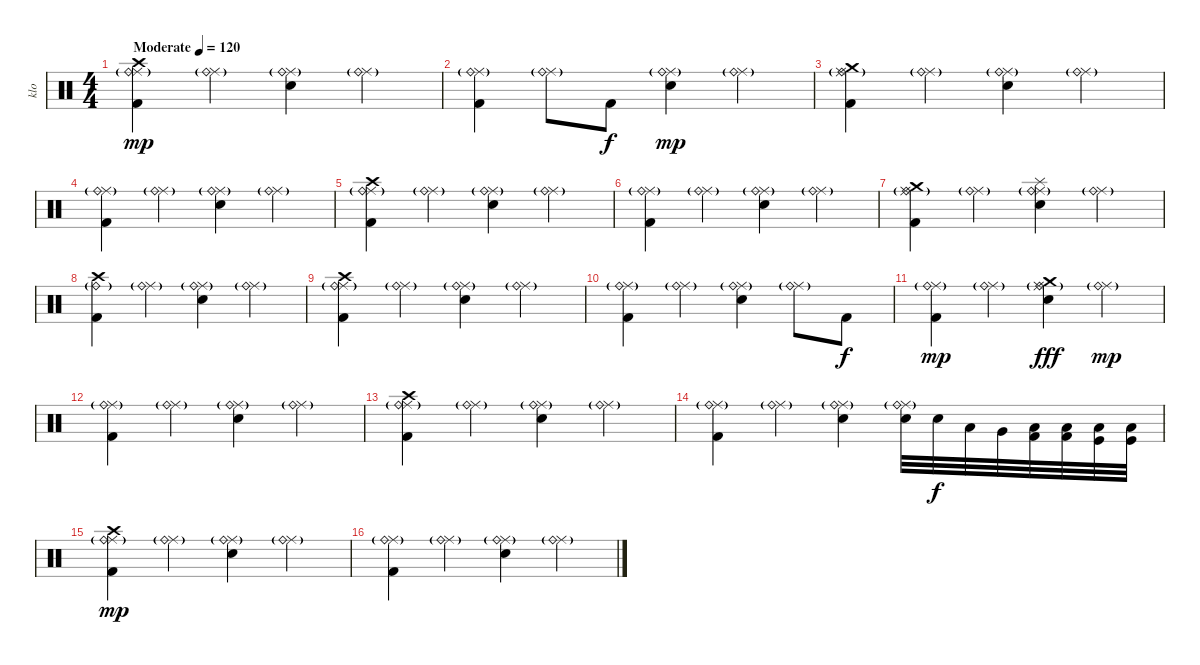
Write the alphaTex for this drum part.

\track ("klo" "klo") {instrument percussion}
\staff
\articulation defaults
\ts (4 4)
\tempo (120 "Moderate")
\clef neutral
\ks c
("Ride (middle)" "Ride (bell)"{g} "Kick (hit) 2" "Crash high (hit)").4{dy mp} ("Ride (middle)" "Ride (bell)"{g}).4 ("Ride (middle)" "Ride (bell)"{g} "Snare (hit) 2").4 ("Ride (middle)" "Ride (bell)"{g}).4 |
("Ride (middle)" "Ride (bell)"{g} "Kick (hit) 2").4 ("Ride (middle)" "Ride (bell)"{g}).8 "Kick (hit) 2".8{dy f} ("Ride (middle)" "Ride (bell)"{g} "Snare (hit) 2").4{dy mp} ("Ride (middle)" "Ride (bell)"{g}).4 |
("Ride (middle)" "Ride (bell)"{g} "Kick (hit) 2" "Crash medium (hit)").4 ("Ride (middle)" "Ride (bell)"{g}).4 ("Ride (middle)" "Ride (bell)"{g} "Snare (hit) 2").4 ("Ride (middle)" "Ride (bell)"{g}).4 |
("Ride (middle)" "Ride (bell)"{g} "Kick (hit) 2").4 ("Ride (middle)" "Ride (bell)"{g}).4 ("Ride (middle)" "Ride (bell)"{g} "Snare (hit) 2").4 ("Ride (middle)" "Ride (bell)"{g}).4 |
("Ride (middle)" "Ride (bell)"{g} "Kick (hit) 2" "Crash high (hit)").4 ("Ride (middle)" "Ride (bell)"{g}).4 ("Ride (middle)" "Ride (bell)"{g} "Snare (hit) 2").4 ("Ride (middle)" "Ride (bell)"{g}).4 |
("Ride (middle)" "Ride (bell)"{g} "Kick (hit) 2").4 ("Ride (middle)" "Ride (bell)"{g}).4 ("Ride (middle)" "Ride (bell)"{g} "Snare (hit) 2").4 ("Ride (middle)" "Ride (bell)"{g}).4 |
("Ride (middle)" "Ride (bell)"{g} "Kick (hit) 2" "Crash medium (hit)").4 ("Ride (middle)" "Ride (bell)"{g}).4 ("Ride (middle)" "Ride (bell)"{g} "Snare (hit) 2" "Splash (hit)").4 ("Ride (middle)" "Ride (bell)"{g}).4 |
("Crash high (hit)" "Ride (bell)"{g} "Kick (hit) 2").4 ("Ride (middle)" "Ride (bell)"{g}).4 ("Ride (middle)" "Ride (bell)"{g} "Snare (hit) 2").4 ("Ride (middle)" "Ride (bell)"{g}).4 |
("Ride (middle)" "Ride (bell)"{g} "Kick (hit) 2" "Crash high (hit)").4 ("Ride (middle)" "Ride (bell)"{g}).4 ("Ride (middle)" "Ride (bell)"{g} "Snare (hit) 2").4 ("Ride (middle)" "Ride (bell)"{g}).4 |
("Ride (middle)" "Ride (bell)"{g} "Kick (hit) 2").4 ("Ride (middle)" "Ride (bell)"{g}).4 ("Ride (middle)" "Ride (bell)"{g} "Snare (hit) 2").4 ("Ride (middle)" "Ride (bell)"{g}).8 "Kick (hit) 2".8{dy f} |
("Ride (middle)" "Ride (bell)"{g} "Kick (hit) 2").4{dy mp} ("Ride (middle)" "Ride (bell)"{g}).4 ("Ride (middle)" "Ride (bell)"{g} "Snare (hit) 2" "Crash medium (hit)").4{dy fff} ("Ride (middle)" "Ride (bell)"{g}).4{dy mp} |
("Ride (middle)" "Ride (bell)"{g} "Kick (hit) 2").4 ("Ride (middle)" "Ride (bell)"{g}).4 ("Ride (middle)" "Ride (bell)"{g} "Snare (hit) 2").4 ("Ride (middle)" "Ride (bell)"{g}).4 |
("Ride (middle)" "Ride (bell)"{g} "Kick (hit) 2" "Crash high (hit)").4 ("Ride (middle)" "Ride (bell)"{g}).4 ("Ride (middle)" "Ride (bell)"{g} "Snare (hit) 2").4 ("Ride (middle)" "Ride (bell)"{g}).4 |
("Ride (middle)" "Ride (bell)"{g} "Kick (hit) 2").4 ("Ride (middle)" "Ride (bell)"{g}).4 ("Ride (middle)" "Ride (bell)"{g} "Snare (hit) 2").4 ("Ride (middle)" "Ride (bell)"{g} "Electric Snare (hit)").32 "Electric Snare (hit)".32{dy f} "Low Tom (hit)".32 "Very Low Tom (hit)".32 ("Kick (hit) 2" "Low Floor Tom (hit)").32 ("Kick (hit) 2" "Low Floor Tom (hit)").32 ("Kick (hit)" "Low Floor Tom (hit)").32 ("Kick (hit)" "Low Floor Tom (hit)").32 |
("Ride (middle)" "Ride (bell)"{g} "Kick (hit) 2" "Crash high (hit)").4{dy mp} ("Ride (middle)" "Ride (bell)"{g}).4 ("Ride (middle)" "Ride (bell)"{g} "Snare (hit) 2").4 ("Ride (middle)" "Ride (bell)"{g}).4 |
("Ride (middle)" "Ride (bell)"{g} "Kick (hit) 2").4 ("Ride (middle)" "Ride (bell)"{g}).4 ("Ride (middle)" "Ride (bell)"{g} "Snare (hit) 2").4 ("Ride (middle)" "Ride (bell)"{g}).4
